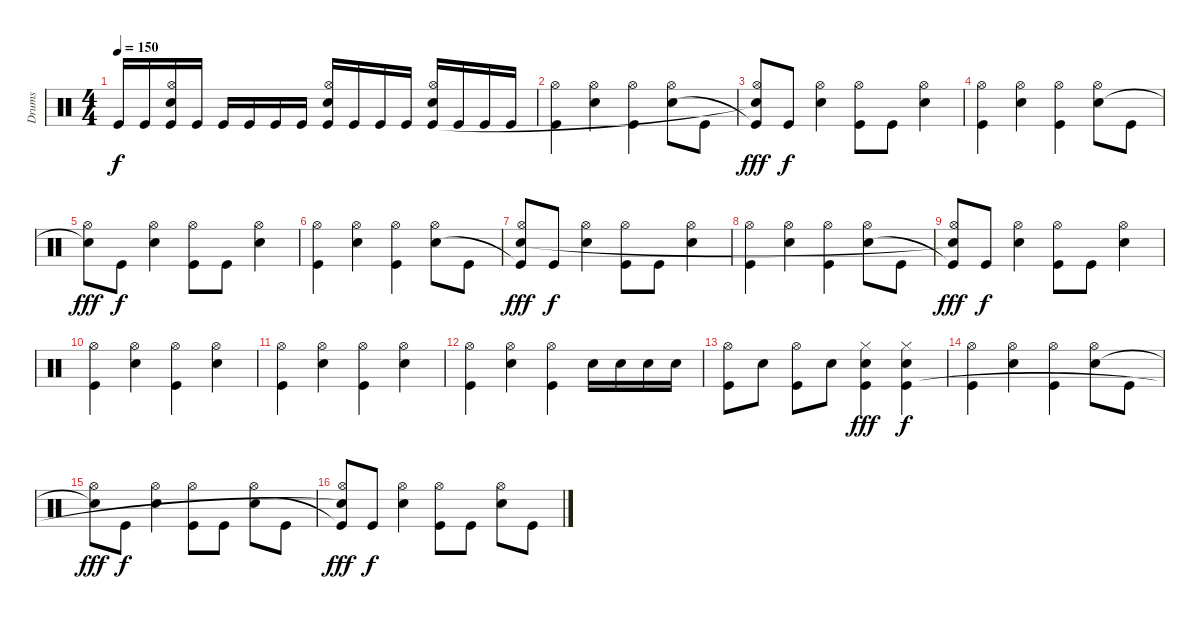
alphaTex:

\track ("Drums" "Drums") {instrument percussion}
\staff {score}
\articulation defaults
\ts (4 4)
\tempo 150
\clef neutral
\ks c "Kick (hit)".16{dy f} "Kick (hit)".16
("Hi-Hat (open)" "Snare (hit) 2" "Kick (hit)").16 "Kick (hit)".16 "Kick (hit)".16 "Kick (hit)".16 "Kick (hit)".16 "Kick (hit)".16 ("Hi-Hat (open)" "Snare (hit) 2" "Kick (hit)").16 "Kick (hit)".16 "Kick (hit)".16 "Kick (hit)".16 ("Hi-Hat (open)" "Snare (hit) 2" "Kick (hit)").16 "Kick (hit)".16 "Kick (hit)".16 "Kick (hit)".16 |
("Hi-Hat (open)" "Kick (hit)").4 ("Hi-Hat (open)" "Snare (hit) 2").4 ("Hi-Hat (open)" "Kick (hit)").4 ("Hi-Hat (open)" "Snare (hit) 2").8 "Kick (hit)".8 |
("Hi-Hat (open)" "Kick (hit)"{t} "Snare (hit)"{t}).8{dy fff} "Kick (hit)".8{dy f} ("Hi-Hat (open)" "Snare (hit) 2").4 ("Hi-Hat (open)" "Kick (hit)").8 "Kick (hit)".8 ("Hi-Hat (open)" "Snare (hit) 2").4 |
("Hi-Hat (open)" "Kick (hit)").4 ("Hi-Hat (open)" "Snare (hit) 2").4 ("Hi-Hat (open)" "Kick (hit)").4 ("Hi-Hat (open)" "Snare (hit) 2").8 "Kick (hit)".8 |
("Hi-Hat (open)" "Snare (hit)"{t}).8{dy fff} "Kick (hit)".8{dy f} ("Hi-Hat (open)" "Snare (hit) 2").4 ("Hi-Hat (open)" "Kick (hit)").8 "Kick (hit)".8 ("Hi-Hat (open)" "Snare (hit) 2").4 |
("Hi-Hat (open)" "Kick (hit)").4 ("Hi-Hat (open)" "Snare (hit) 2").4 ("Hi-Hat (open)" "Kick (hit)").4 ("Hi-Hat (open)" "Snare (hit) 2").8 "Kick (hit)".8 |
("Hi-Hat (open)" "Kick (hit)"{t} "Snare (hit)").8{dy fff} "Kick (hit)".8{dy f} ("Hi-Hat (open)" "Snare (hit) 2").4 ("Hi-Hat (open)" "Kick (hit)").8 "Kick (hit)".8 ("Hi-Hat (open)" "Snare (hit) 2").4 |
("Hi-Hat (open)" "Kick (hit)").4 ("Hi-Hat (open)" "Snare (hit) 2").4 ("Hi-Hat (open)" "Kick (hit)").4 ("Hi-Hat (open)" "Snare (hit) 2").8 "Kick (hit)".8 |
("Hi-Hat (open)" "Kick (hit)"{t} "Snare (hit)"{t}).8{dy fff} "Kick (hit)".8{dy f} ("Hi-Hat (open)" "Snare (hit) 2").4 ("Hi-Hat (open)" "Kick (hit)").8 "Kick (hit)".8 ("Hi-Hat (open)" "Snare (hit) 2").4 |
("Hi-Hat (open)" "Kick (hit)").4 ("Hi-Hat (open)" "Snare (hit) 2").4 ("Hi-Hat (open)" "Kick (hit)").4 ("Hi-Hat (open)" "Snare (hit) 2").4 |
("Hi-Hat (open)" "Kick (hit)").4 ("Hi-Hat (open)" "Snare (hit) 2").4 ("Hi-Hat (open)" "Kick (hit)").4 ("Hi-Hat (open)" "Snare (hit) 2").4 |
("Hi-Hat (open)" "Kick (hit)").4 ("Hi-Hat (open)" "Snare (hit) 2").4 ("Hi-Hat (open)" "Kick (hit)").4 "Snare (hit) 2".16 "Snare (hit) 2".16 "Snare (hit) 2".16 "Snare (hit) 2".16 |
("Hi-Hat (open)" "Kick (hit)").8 "Snare (hit) 2".8 ("Hi-Hat (open)" "Kick (hit)").8 "Snare (hit) 2".8 ("Hi-Hat (closed)" "Snare (hit) 2" "Kick (hit)").4{dy fff} ("Hi-Hat (closed)" "Snare (hit) 2" "Kick (hit)").4{dy f} |
("Hi-Hat (open)" "Kick (hit)").4 ("Hi-Hat (open)" "Snare (hit) 2").4 ("Hi-Hat (open)" "Kick (hit)").4 ("Hi-Hat (open)" "Snare (hit) 2").8 "Kick (hit)".8 |
("Hi-Hat (open)" "Snare (hit)"{t}).8{dy fff} "Kick (hit)".8{dy f} ("Hi-Hat (open)" "Snare (hit) 2").4 ("Hi-Hat (open)" "Kick (hit)").8 "Kick (hit)".8 ("Hi-Hat (open)" "Snare (hit) 2").8 "Kick (hit)".8 |
("Hi-Hat (open)" "Kick (hit)"{t} "Snare (hit)"{t}).8{dy fff} "Kick (hit)".8{dy f} ("Hi-Hat (open)" "Snare (hit) 2").4 ("Hi-Hat (open)" "Kick (hit)").8 "Kick (hit)".8 ("Hi-Hat (open)" "Snare (hit) 2").8 "Kick (hit)".8
